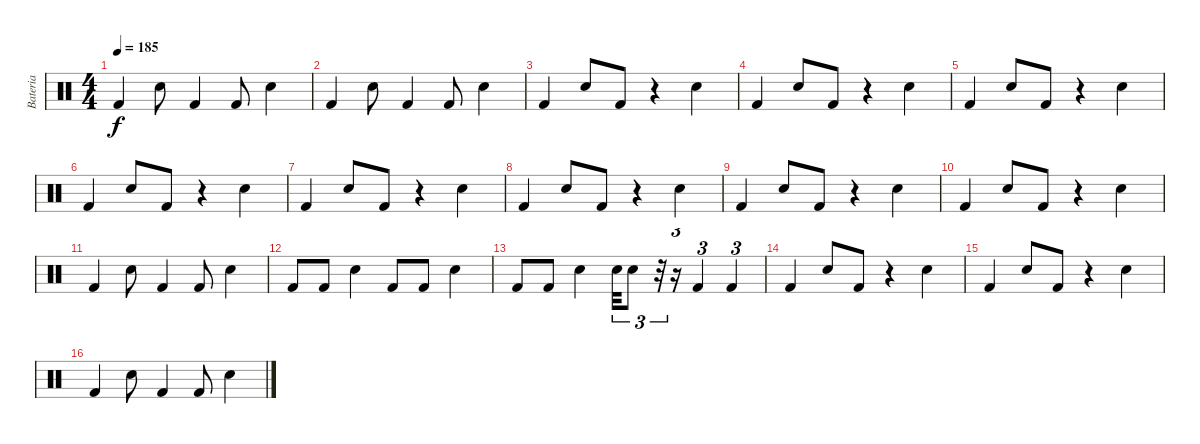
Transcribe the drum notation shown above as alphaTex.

\track ("Bateria" "Bateria") {instrument percussion}
\staff {score}
\articulation defaults
\ts (4 4)
\tempo 185
\clef neutral
\ks c "Kick (hit) 2".4{dy f} "Snare (hit) 2".8 "Kick (hit) 2".4 "Kick (hit) 2".8 "Snare (hit) 2".4
|
"Kick (hit) 2".4 "Snare (hit) 2".8 "Kick (hit) 2".4 "Kick (hit) 2".8 "Snare (hit) 2".4 |
"Kick (hit) 2".4 "Snare (hit) 2".8 "Kick (hit) 2".8 r.4 "Snare (hit) 2".4 |
"Kick (hit) 2".4 "Snare (hit) 2".8 "Kick (hit) 2".8 r.4 "Snare (hit) 2".4 |
"Kick (hit) 2".4 "Snare (hit) 2".8 "Kick (hit) 2".8 r.4 "Snare (hit) 2".4 |
"Kick (hit) 2".4 "Snare (hit) 2".8 "Kick (hit) 2".8 r.4 "Snare (hit) 2".4 |
"Kick (hit) 2".4 "Snare (hit) 2".8 "Kick (hit) 2".8 r.4 "Snare (hit) 2".4 |
"Kick (hit) 2".4 "Snare (hit) 2".8 "Kick (hit) 2".8 r.4 "Snare (hit) 2".4 |
"Kick (hit) 2".4 "Snare (hit) 2".8 "Kick (hit) 2".8 r.4 "Snare (hit) 2".4 |
"Kick (hit) 2".4 "Snare (hit) 2".8 "Kick (hit) 2".8 r.4 "Snare (hit) 2".4 |
"Kick (hit) 2".4 "Snare (hit) 2".8 "Kick (hit) 2".4 "Kick (hit) 2".8 "Snare (hit) 2".4 |
"Kick (hit) 2".8 "Kick (hit) 2".8 "Snare (hit) 2".4 "Kick (hit) 2".8 "Kick (hit) 2".8 "Snare (hit) 2".4 |
"Kick (hit) 2".8 "Kick (hit) 2".8 "Snare (hit) 2".4 "Snare (hit) 2".32{tu (3 2)} "Snare (hit) 2".8{tu (3 2)} r.32{tu (3 2)} r.16{tu (3 2)} "Kick (hit) 2".4{tu (3 2)} "Kick (hit) 2".4{tu (3 2)} |
"Kick (hit) 2".4 "Snare (hit) 2".8 "Kick (hit) 2".8 r.4 "Snare (hit) 2".4 |
"Kick (hit) 2".4 "Snare (hit) 2".8 "Kick (hit) 2".8 r.4 "Snare (hit) 2".4 |
"Kick (hit) 2".4 "Snare (hit) 2".8 "Kick (hit) 2".4 "Kick (hit) 2".8 "Snare (hit) 2".4
